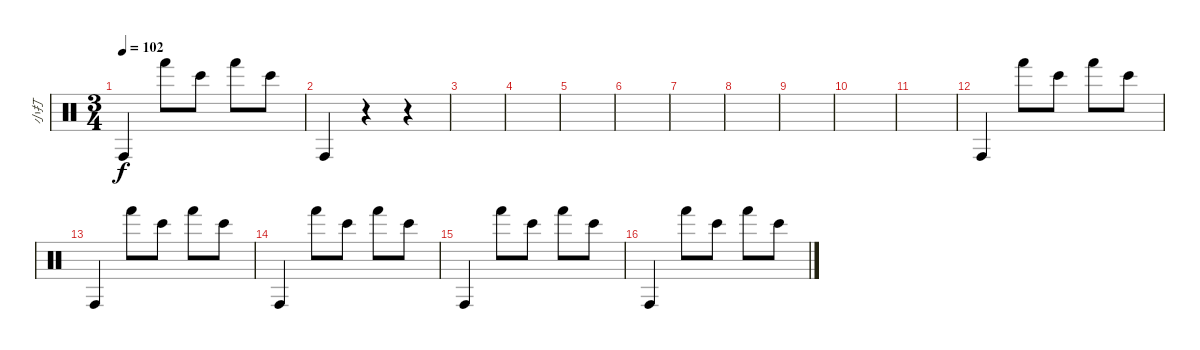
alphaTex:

\track ("小打" "小打") {instrument percussion}
\staff {score}
\articulation defaults
\ts (3 4)
\tempo 102
\clef neutral
\ks c "Conga high (hit)".4{dy f} "Hand (hit)".8 "Bongo High (hit)".8 "Hand (hit)".8 "Bongo High (hit)".8
|
"Conga high (hit)".4 r.4 r.4 |
|
|
|
|
|
|
|
|
|
"Conga high (hit)".4 "Hand (hit)".8 "Bongo High (hit)".8 "Hand (hit)".8 "Bongo High (hit)".8 |
"Conga high (hit)".4 "Hand (hit)".8 "Bongo High (hit)".8 "Hand (hit)".8 "Bongo High (hit)".8 |
"Conga high (hit)".4 "Hand (hit)".8 "Bongo High (hit)".8 "Hand (hit)".8 "Bongo High (hit)".8 |
"Conga high (hit)".4 "Hand (hit)".8 "Bongo High (hit)".8 "Hand (hit)".8 "Bongo High (hit)".8 |
"Conga high (hit)".4 "Hand (hit)".8 "Bongo High (hit)".8 "Hand (hit)".8 "Bongo High (hit)".8
